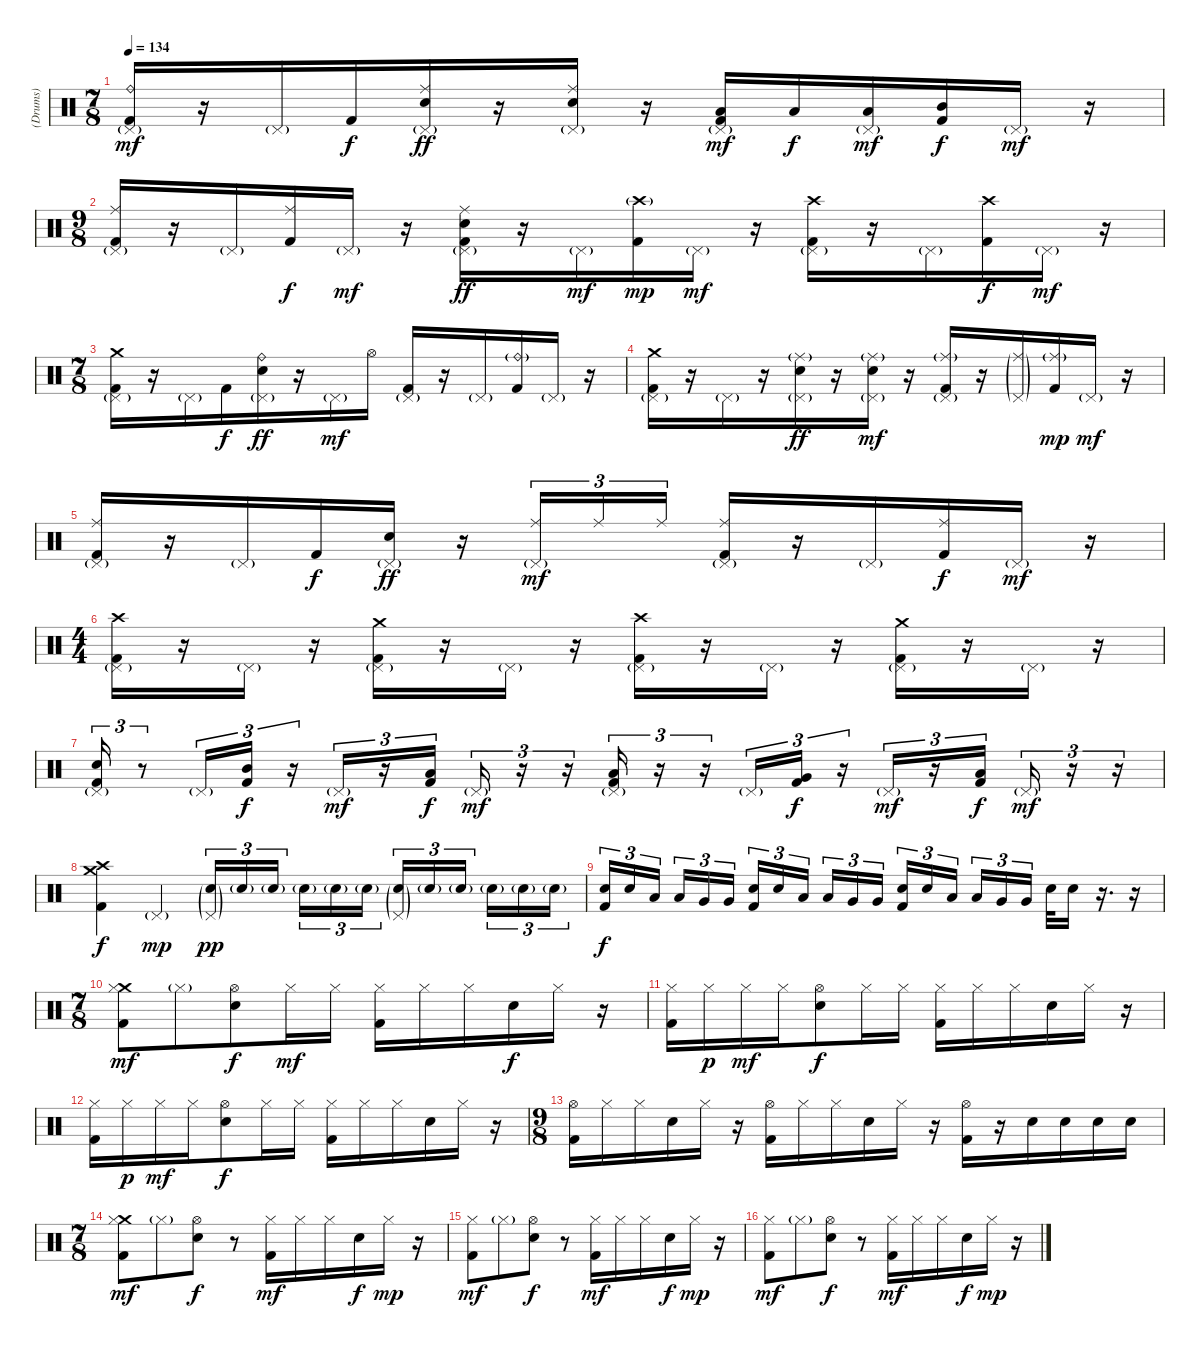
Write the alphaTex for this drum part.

\track ("(Drums)" "(Drums)") {instrument percussion}
\staff {score}
\articulation defaults
\ts (7 8)
\tempo 134
\clef neutral
\ks c
("Ride (bell)" "Pedal Hi-Hat (hit)"{g} "Kick (hit) 2").16{dy mf} r.16 "Pedal Hi-Hat (hit)"{g}.16 "Kick (hit) 2".16{dy f} ("Ride (middle)" "Pedal Hi-Hat (hit)"{g} "Electric Snare (hit)").16{dy ff} r.16 ("Ride (middle)" "Pedal Hi-Hat (hit)"{g} "Electric Snare (hit)").16 r.16 ("Pedal Hi-Hat (hit)"{g} "Low Tom (hit)" "Kick (hit) 2").16{dy mf} "Low Tom (hit)".16{dy f} ("Pedal Hi-Hat (hit)"{g} "Low Tom (hit)").16{dy mf} ("Mid Tom (hit)" "Kick (hit) 2").16{dy f} "Pedal Hi-Hat (hit)"{g}.16{dy mf} r.16 |
\ts (9 8)
("Ride (middle)" "Pedal Hi-Hat (hit)"{g} "Kick (hit) 2").16 r.16 "Pedal Hi-Hat (hit)"{g}.16 ("Ride (middle)" "Kick (hit) 2").16{dy f} "Pedal Hi-Hat (hit)"{g}.16{dy mf} r.16 ("Ride (middle)" "Pedal Hi-Hat (hit)"{g} "Electric Snare (hit)" "Kick (hit) 2").16{dy ff} r.16 "Pedal Hi-Hat (hit)"{g}.16{dy mf} ("Crash high (hit)"{g} "Kick (hit) 2").16{dy mp} "Pedal Hi-Hat (hit)"{g}.16{dy mf} r.16 ("Crash high (hit)" "Pedal Hi-Hat (hit)"{g} "Kick (hit) 2").16 r.16 "Pedal Hi-Hat (hit)"{g}.16 ("Crash high (hit)" "Kick (hit) 2").16{dy f} "Pedal Hi-Hat (hit)"{g}.16{dy mf} r.16 |
\ts (7 8)
("Crash medium (hit)" "Pedal Hi-Hat (hit)"{g} "Kick (hit) 2").16 r.16 "Pedal Hi-Hat (hit)"{g}.16 "Kick (hit) 2".16{dy f} ("Ride (bell)" "Pedal Hi-Hat (hit)"{g} "Electric Snare (hit)").16{dy ff} r.16 "Pedal Hi-Hat (hit)"{g}.16{dy mf} "Hi-Hat (open)".16 ("Pedal Hi-Hat (hit)"{g} "Kick (hit) 2").16 r.16 "Pedal Hi-Hat (hit)"{g}.16 ("Ride (bell)"{g} "Kick (hit) 2").16 "Pedal Hi-Hat (hit)"{g}.16 r.16 |
("Crash medium (hit)" "Pedal Hi-Hat (hit)"{g} "Kick (hit) 2").16 r.16 "Pedal Hi-Hat (hit)"{g}.16 r.16 ("Ride (middle)"{g} "Pedal Hi-Hat (hit)"{g} "Electric Snare (hit)").16{dy ff} r.16 ("Ride (middle)"{g} "Pedal Hi-Hat (hit)"{g} "Electric Snare (hit)").16{dy mf} r.16 ("Ride (middle)"{g} "Pedal Hi-Hat (hit)"{g} "Kick (hit) 2").16 r.16 ("Ride (middle)"{g} "Pedal Hi-Hat (hit)"{g}).16 ("Ride (middle)"{g} "Kick (hit) 2").16{dy mp} "Pedal Hi-Hat (hit)"{g}.16{dy mf} r.16 |
("Ride (middle)" "Pedal Hi-Hat (hit)"{g} "Kick (hit) 2").16 r.16 "Pedal Hi-Hat (hit)"{g}.16 "Kick (hit) 2".16{dy f} ("Pedal Hi-Hat (hit)"{g} "Electric Snare (hit)").16{dy ff} r.16 ("Ride (middle)" "Pedal Hi-Hat (hit)"{g}).16{tu (3 2) dy mf} "Ride (middle)".16{tu (3 2)} "Ride (middle)".16{tu (3 2)} ("Ride (middle)" "Pedal Hi-Hat (hit)"{g} "Kick (hit) 2").16 r.16 "Pedal Hi-Hat (hit)"{g}.16 ("Ride (middle)" "Kick (hit) 2").16{dy f} "Pedal Hi-Hat (hit)"{g}.16{dy mf} r.16 |
\ts (4 4)
("Crash high (hit)" "Pedal Hi-Hat (hit)"{g} "Kick (hit) 2").16 r.16 "Pedal Hi-Hat (hit)"{g}.16 r.16 ("Crash medium (hit)" "Pedal Hi-Hat (hit)"{g} "Kick (hit) 2").16 r.16 "Pedal Hi-Hat (hit)"{g}.16 r.16 ("Crash high (hit)" "Pedal Hi-Hat (hit)"{g} "Kick (hit) 2").16 r.16 "Pedal Hi-Hat (hit)"{g}.16 r.16 ("Crash medium (hit)" "Pedal Hi-Hat (hit)"{g} "Kick (hit) 2").16 r.16 "Pedal Hi-Hat (hit)"{g}.16 r.16 |
("Pedal Hi-Hat (hit)"{g} "Electric Snare (hit)" "Kick (hit) 2").16{tu (3 2)} r.8{tu (3 2)} "Pedal Hi-Hat (hit)"{g}.16{tu (3 2)} ("Mid Tom (hit)" "Kick (hit) 2").16{tu (3 2) dy f} r.16{tu (3 2)} "Pedal Hi-Hat (hit)"{g}.16{tu (3 2) dy mf} r.16{tu (3 2)} ("Low Tom (hit)" "Kick (hit) 2").16{tu (3 2) dy f} "Pedal Hi-Hat (hit)"{g}.16{tu (3 2) dy mf} r.16{tu (3 2)} r.16{tu (3 2)} ("Pedal Hi-Hat (hit)"{g} "Low Tom (hit)" "Kick (hit) 2").16{tu (3 2)} r.16{tu (3 2)} r.16{tu (3 2)} "Pedal Hi-Hat (hit)"{g}.16{tu (3 2)} ("Very Low Tom (hit)" "Kick (hit) 2").16{tu (3 2) dy f} r.16{tu (3 2)} "Pedal Hi-Hat (hit)"{g}.16{tu (3 2) dy mf} r.16{tu (3 2)} ("Low Floor Tom (hit)" "Kick (hit) 2").16{tu (3 2) dy f} "Pedal Hi-Hat (hit)"{g}.16{tu (3 2) dy mf} r.16{tu (3 2)} r.16{tu (3 2)} |
("Crash medium (hit)" "Crash high (hit)" "Kick (hit) 2").4{dy f} "Pedal Hi-Hat (hit)"{g}.4{dy mp} ("Pedal Hi-Hat (hit)"{g} "Electric Snare (hit)"{g}).16{tu (3 2) dy pp} "Electric Snare (hit)"{g}.16{tu (3 2)} "Electric Snare (hit)"{g}.16{tu (3 2)} "Electric Snare (hit)"{g}.16{tu (3 2)} "Electric Snare (hit)"{g}.16{tu (3 2)} "Electric Snare (hit)"{g}.16{tu (3 2)} ("Pedal Hi-Hat (hit)"{g} "Electric Snare (hit)"{g}).16{tu (3 2)} "Electric Snare (hit)"{g}.16{tu (3 2)} "Electric Snare (hit)"{g}.16{tu (3 2)} "Electric Snare (hit)"{g}.16{tu (3 2)} "Electric Snare (hit)"{g}.16{tu (3 2)} "Electric Snare (hit)"{g}.16{tu (3 2)} |
("Electric Snare (hit)" "Kick (hit) 2").16{tu (3 2) dy f} "Electric Snare (hit)".16{tu (3 2)} "Low Tom (hit)".16{tu (3 2)} "Low Tom (hit)".16{tu (3 2)} "Very Low Tom (hit)".16{tu (3 2)} "Very Low Tom (hit)".16{tu (3 2)} ("Electric Snare (hit)" "Kick (hit) 2").16{tu (3 2)} "Electric Snare (hit)".16{tu (3 2)} "Low Tom (hit)".16{tu (3 2)} "Low Tom (hit)".16{tu (3 2)} "Very Low Tom (hit)".16{tu (3 2)} "Very Low Tom (hit)".16{tu (3 2)} ("Electric Snare (hit)" "Kick (hit) 2").16{tu (3 2)} "Electric Snare (hit)".16{tu (3 2)} "Low Tom (hit)".16{tu (3 2)} "Low Tom (hit)".16{tu (3 2)} "Very Low Tom (hit)".16{tu (3 2)} "Very Low Tom (hit)".16{tu (3 2)} "Electric Snare (hit)".32 "Electric Snare (hit)".16 r.16{d} r.16 |
\ts (7 8)
("Crash medium (hit)" "Hi-Hat (closed)" "Kick (hit) 2").8{dy mf} "Hi-Hat (closed)"{g}.8 ("Hi-Hat (open)" "Electric Snare (hit)").8{dy f} "Hi-Hat (closed)".16{dy mf} "Hi-Hat (closed)".16 ("Hi-Hat (closed)" "Kick (hit) 2").16 "Hi-Hat (closed)".16 "Hi-Hat (closed)".16 "Electric Snare (hit)".16{dy f} "Hi-Hat (closed)".16 r.16 |
("Hi-Hat (closed)" "Kick (hit) 2").16 "Hi-Hat (closed)".16{dy p} "Hi-Hat (closed)".16{dy mf} "Hi-Hat (closed)".16 ("Hi-Hat (open)" "Electric Snare (hit)").8{dy f} "Hi-Hat (closed)".16 "Hi-Hat (closed)".16 ("Hi-Hat (closed)" "Kick (hit) 2").16 "Hi-Hat (closed)".16 "Hi-Hat (closed)".16 "Electric Snare (hit)".16 "Hi-Hat (closed)".16 r.16 |
("Hi-Hat (closed)" "Kick (hit) 2").16 "Hi-Hat (closed)".16{dy p} "Hi-Hat (closed)".16{dy mf} "Hi-Hat (closed)".16 ("Hi-Hat (open)" "Electric Snare (hit)").8{dy f} "Hi-Hat (closed)".16 "Hi-Hat (closed)".16 ("Hi-Hat (closed)" "Kick (hit) 2").16 "Hi-Hat (closed)".16 "Hi-Hat (closed)".16 "Electric Snare (hit)".16 "Hi-Hat (closed)".16 r.16 |
\ts (9 8)
("Hi-Hat (open)" "Kick (hit) 2").16 "Hi-Hat (closed)".16 "Hi-Hat (closed)".16 "Electric Snare (hit)".16 "Hi-Hat (closed)".16 r.16 ("Hi-Hat (open)" "Kick (hit) 2").16 "Hi-Hat (closed)".16 "Hi-Hat (closed)".16 "Electric Snare (hit)".16 "Hi-Hat (closed)".16 r.16 ("Hi-Hat (open)" "Kick (hit) 2").16 r.16 "Electric Snare (hit)".16 "Electric Snare (hit)".16 "Electric Snare (hit)".16 "Electric Snare (hit)".16 |
\ts (7 8)
("Crash medium (hit)" "Hi-Hat (closed)" "Kick (hit) 2").8{dy mf} "Hi-Hat (closed)"{g}.8 ("Hi-Hat (open)" "Electric Snare (hit)").8{dy f} r.8 ("Hi-Hat (closed)" "Kick (hit) 2").16{dy mf} "Hi-Hat (closed)".16 "Hi-Hat (closed)".16 "Electric Snare (hit)".16{dy f} "Hi-Hat (closed)".16{dy mp} r.16 |
("Hi-Hat (closed)" "Kick (hit) 2").8{dy mf} "Hi-Hat (closed)"{g}.8 ("Hi-Hat (open)" "Electric Snare (hit)").8{dy f} r.8 ("Hi-Hat (closed)" "Kick (hit) 2").16{dy mf} "Hi-Hat (closed)".16 "Hi-Hat (closed)".16 "Electric Snare (hit)".16{dy f} "Hi-Hat (closed)".16{dy mp} r.16 |
("Hi-Hat (closed)" "Kick (hit) 2").8{dy mf} "Hi-Hat (closed)"{g}.8 ("Hi-Hat (open)" "Electric Snare (hit)").8{dy f} r.8 ("Hi-Hat (closed)" "Kick (hit) 2").16{dy mf} "Hi-Hat (closed)".16 "Hi-Hat (closed)".16 "Electric Snare (hit)".16{dy f} "Hi-Hat (closed)".16{dy mp} r.16
